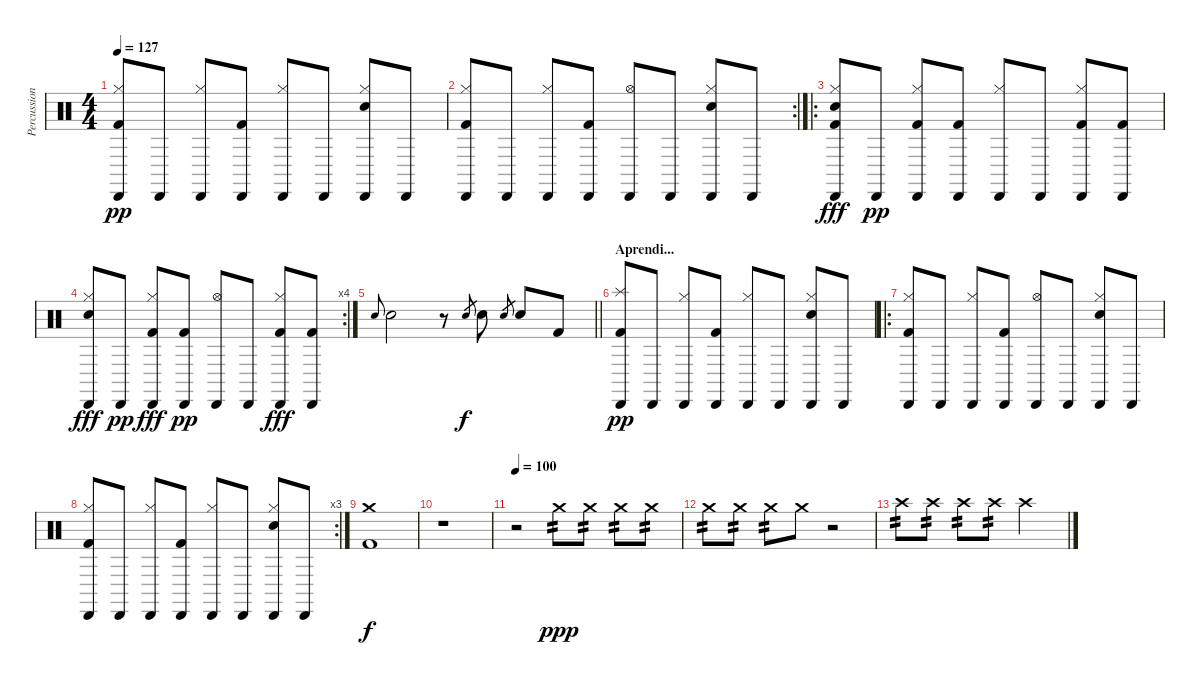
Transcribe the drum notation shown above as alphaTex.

\track ("Percussion" "Percussion") {instrument percussion}
\staff {score}
\articulation defaults
\ts (4 4)
\tempo 127
\clef neutral
\ks c
("Cabasa (hit)" "Hi-Hat (closed)" "Kick (hit) 2").8{dy pp} "Cabasa (hit)".8 ("Cabasa (hit)" "Hi-Hat (closed)").8 ("Cabasa (hit)" "Kick (hit) 2").8 ("Cabasa (hit)" "Hi-Hat (closed)").8 "Cabasa (hit)".8 ("Cabasa (hit)" "Hi-Hat (closed)" "Electric Snare (hit)").8 "Cabasa (hit)".8 |
\rc 2
("Cabasa (hit)" "Hi-Hat (closed)" "Kick (hit) 2").8 "Cabasa (hit)".8 ("Cabasa (hit)" "Hi-Hat (closed)").8 ("Cabasa (hit)" "Kick (hit) 2").8 ("Cabasa (hit)" "Hi-Hat (open)").8 "Cabasa (hit)".8 ("Cabasa (hit)" "Hi-Hat (closed)" "Electric Snare (hit)").8 "Cabasa (hit)".8 |
\ro
("Cabasa (hit)" "Hi-Hat (closed)" "Electric Snare (hit)" "Kick (hit) 2").8{dy fff} "Cabasa (hit)".8{dy pp} ("Cabasa (hit)" "Hi-Hat (closed)" "Kick (hit) 2").8 ("Cabasa (hit)" "Kick (hit) 2").8 ("Cabasa (hit)" "Hi-Hat (closed)").8 "Cabasa (hit)".8 ("Cabasa (hit)" "Hi-Hat (closed)" "Kick (hit) 2").8 ("Cabasa (hit)" "Kick (hit) 2").8 |
\rc 4
("Cabasa (hit)" "Hi-Hat (closed)" "Electric Snare (hit)").8{dy fff} "Cabasa (hit)".8{dy pp} ("Cabasa (hit)" "Hi-Hat (closed)" "Kick (hit) 2").8{dy fff} ("Cabasa (hit)" "Kick (hit) 2").8{dy pp} ("Cabasa (hit)" "Hi-Hat (open)").8 "Cabasa (hit)".8 ("Cabasa (hit)" "Hi-Hat (closed)" "Kick (hit) 2").8{dy fff} ("Cabasa (hit)" "Kick (hit) 2").8 |
\barLineRight lightlight "Electric Snare (hit)".8{gr onbeat} "Electric Snare (hit)".2
r.8 "Electric Snare (hit)".8{gr dy f} "Electric Snare (hit)".8 "Electric Snare (hit)".8{gr} "Electric Snare (hit)".8 "Kick (hit) 2".8 |
\section ("" "Aprendi...")
("Cabasa (hit)" "Splash (hit)" "Kick (hit) 2").8{dy pp} "Cabasa (hit)".8 ("Cabasa (hit)" "Hi-Hat (closed)").8 ("Cabasa (hit)" "Kick (hit) 2").8 ("Cabasa (hit)" "Hi-Hat (closed)").8 "Cabasa (hit)".8 ("Cabasa (hit)" "Hi-Hat (closed)" "Electric Snare (hit)").8 "Cabasa (hit)".8 |
\ro
("Cabasa (hit)" "Hi-Hat (closed)" "Kick (hit) 2").8 "Cabasa (hit)".8 ("Cabasa (hit)" "Hi-Hat (closed)").8 ("Cabasa (hit)" "Kick (hit) 2").8 ("Cabasa (hit)" "Hi-Hat (open)").8 "Cabasa (hit)".8 ("Cabasa (hit)" "Hi-Hat (closed)" "Electric Snare (hit)").8 "Cabasa (hit)".8 |
\rc 3
("Cabasa (hit)" "Hi-Hat (closed)" "Kick (hit) 2").8 "Cabasa (hit)".8 ("Cabasa (hit)" "Hi-Hat (closed)").8 ("Cabasa (hit)" "Kick (hit) 2").8 ("Cabasa (hit)" "Hi-Hat (closed)").8 "Cabasa (hit)".8 ("Cabasa (hit)" "Hi-Hat (closed)" "Electric Snare (hit)").8 "Cabasa (hit)".8 |
("Crash medium (hit)" "Kick (hit) 2").1{dy f} |
r.1 |
\tempo 100
r.2 "Crash medium (hit)".8{tp 2 dy ppp} "Crash medium (hit)".8{tp 2} "Crash medium (hit)".8{tp 2} "Crash medium (hit)".8{tp 2} |
"Crash medium (hit)".8{tp 2} "Crash medium (hit)".8{tp 2} "Crash medium (hit)".8{tp 2} "Crash medium (hit)".8 r.2 |
"Crash high (hit)".8{tp 2} "Crash high (hit)".8{tp 2} "Crash high (hit)".8{tp 2} "Crash high (hit)".8{tp 2} "Crash high (hit)".2
